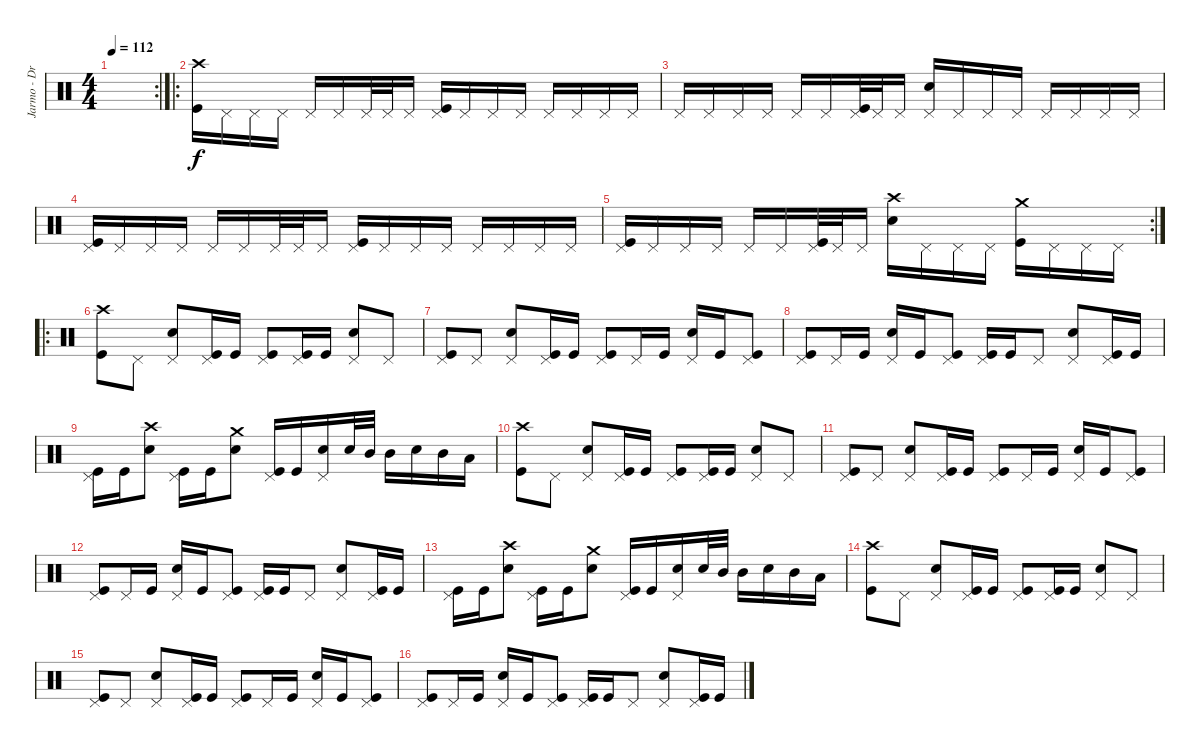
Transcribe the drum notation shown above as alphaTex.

\track ("Jarmo - Drummies" "Jarmo - Dr") {instrument percussion}
\staff {score}
\articulation defaults
\rc 2
\ts (4 4)
\tempo 112
\clef neutral
\ks c
|
\ro
("Crash high (hit)" "Kick (hit)").16 "Pedal Hi-Hat (hit)".16 "Pedal Hi-Hat (hit)".16 "Pedal Hi-Hat (hit)".16 "Pedal Hi-Hat (hit)".16 "Pedal Hi-Hat (hit)".16 "Pedal Hi-Hat (hit)".32 "Pedal Hi-Hat (hit)".32 "Pedal Hi-Hat (hit)".16 ("Pedal Hi-Hat (hit)" "Kick (hit)").16 "Pedal Hi-Hat (hit)".16 "Pedal Hi-Hat (hit)".16 "Pedal Hi-Hat (hit)".16 "Pedal Hi-Hat (hit)".16 "Pedal Hi-Hat (hit)".16 "Pedal Hi-Hat (hit)".16 "Pedal Hi-Hat (hit)".16 |
"Pedal Hi-Hat (hit)".16 "Pedal Hi-Hat (hit)".16 "Pedal Hi-Hat (hit)".16 "Pedal Hi-Hat (hit)".16 "Pedal Hi-Hat (hit)".16 "Pedal Hi-Hat (hit)".16 ("Pedal Hi-Hat (hit)" "Kick (hit)").32 "Pedal Hi-Hat (hit)".32 "Pedal Hi-Hat (hit)".16 ("Pedal Hi-Hat (hit)" "Electric Snare (hit)").16 "Pedal Hi-Hat (hit)".16 "Pedal Hi-Hat (hit)".16 "Pedal Hi-Hat (hit)".16 "Pedal Hi-Hat (hit)".16 "Pedal Hi-Hat (hit)".16 "Pedal Hi-Hat (hit)".16 "Pedal Hi-Hat (hit)".16 |
("Pedal Hi-Hat (hit)" "Kick (hit)").16 "Pedal Hi-Hat (hit)".16 "Pedal Hi-Hat (hit)".16 "Pedal Hi-Hat (hit)".16 "Pedal Hi-Hat (hit)".16 "Pedal Hi-Hat (hit)".16 "Pedal Hi-Hat (hit)".32 "Pedal Hi-Hat (hit)".32 "Pedal Hi-Hat (hit)".16 ("Pedal Hi-Hat (hit)" "Kick (hit)").16 "Pedal Hi-Hat (hit)".16 "Pedal Hi-Hat (hit)".16 "Pedal Hi-Hat (hit)".16 "Pedal Hi-Hat (hit)".16 "Pedal Hi-Hat (hit)".16 "Pedal Hi-Hat (hit)".16 "Pedal Hi-Hat (hit)".16 |
\rc 2
("Pedal Hi-Hat (hit)" "Kick (hit)").16 "Pedal Hi-Hat (hit)".16 "Pedal Hi-Hat (hit)".16 "Pedal Hi-Hat (hit)".16 "Pedal Hi-Hat (hit)".16 "Pedal Hi-Hat (hit)".16 ("Pedal Hi-Hat (hit)" "Kick (hit)").32 "Pedal Hi-Hat (hit)".32 "Pedal Hi-Hat (hit)".16 ("Crash high (hit)" "Electric Snare (hit)").16 "Pedal Hi-Hat (hit)".16 "Pedal Hi-Hat (hit)".16 "Pedal Hi-Hat (hit)".16 ("Crash medium (hit)" "Kick (hit)").16 "Pedal Hi-Hat (hit)".16 "Pedal Hi-Hat (hit)".16 "Pedal Hi-Hat (hit)".16 |
\ro
("Crash high (hit)" "Kick (hit)").8 "Pedal Hi-Hat (hit)".8 ("Pedal Hi-Hat (hit)" "Electric Snare (hit)").8 ("Pedal Hi-Hat (hit)" "Kick (hit)").16 "Kick (hit)".16 ("Pedal Hi-Hat (hit)" "Kick (hit)").8 ("Pedal Hi-Hat (hit)" "Kick (hit)").16 "Kick (hit)".16 ("Pedal Hi-Hat (hit)" "Electric Snare (hit)").8 "Pedal Hi-Hat (hit)".8 |
("Pedal Hi-Hat (hit)" "Kick (hit)").8 "Pedal Hi-Hat (hit)".8 ("Pedal Hi-Hat (hit)" "Electric Snare (hit)").8 ("Pedal Hi-Hat (hit)" "Kick (hit)").16 "Kick (hit)".16 ("Pedal Hi-Hat (hit)" "Kick (hit)").8 "Pedal Hi-Hat (hit)".16 "Kick (hit)".16 ("Pedal Hi-Hat (hit)" "Electric Snare (hit)").16 "Kick (hit)".16 ("Pedal Hi-Hat (hit)" "Kick (hit)").8 |
("Pedal Hi-Hat (hit)" "Kick (hit)").8 "Pedal Hi-Hat (hit)".16 "Kick (hit)".16 ("Pedal Hi-Hat (hit)" "Electric Snare (hit)").16 "Kick (hit)".16 ("Pedal Hi-Hat (hit)" "Kick (hit)").8 ("Pedal Hi-Hat (hit)" "Kick (hit)").16 "Kick (hit)".16 "Pedal Hi-Hat (hit)".8 ("Pedal Hi-Hat (hit)" "Electric Snare (hit)").8 ("Pedal Hi-Hat (hit)" "Kick (hit)").16 "Kick (hit)".16 |
("Pedal Hi-Hat (hit)" "Kick (hit)").16 "Kick (hit)".16 ("Crash high (hit)" "Electric Snare (hit)").8 ("Pedal Hi-Hat (hit)" "Kick (hit)").16 "Kick (hit)".16 ("Crash medium (hit)" "Electric Snare (hit)").8 ("Pedal Hi-Hat (hit)" "Kick (hit)").16 "Kick (hit)".16 ("Pedal Hi-Hat (hit)" "Electric Snare (hit)").16 "Electric Snare (hit)".32 "Mid Tom (hit)".32 "Mid Tom (hit)".16 "Electric Snare (hit)".16 "Mid Tom (hit)".16 "Low Tom (hit)".16 |
("Crash high (hit)" "Kick (hit)").8 "Pedal Hi-Hat (hit)".8 ("Pedal Hi-Hat (hit)" "Electric Snare (hit)").8 ("Pedal Hi-Hat (hit)" "Kick (hit)").16 "Kick (hit)".16 ("Pedal Hi-Hat (hit)" "Kick (hit)").8 ("Pedal Hi-Hat (hit)" "Kick (hit)").16 "Kick (hit)".16 ("Pedal Hi-Hat (hit)" "Electric Snare (hit)").8 "Pedal Hi-Hat (hit)".8 |
("Pedal Hi-Hat (hit)" "Kick (hit)").8 "Pedal Hi-Hat (hit)".8 ("Pedal Hi-Hat (hit)" "Electric Snare (hit)").8 ("Pedal Hi-Hat (hit)" "Kick (hit)").16 "Kick (hit)".16 ("Pedal Hi-Hat (hit)" "Kick (hit)").8 "Pedal Hi-Hat (hit)".16 "Kick (hit)".16 ("Pedal Hi-Hat (hit)" "Electric Snare (hit)").16 "Kick (hit)".16 ("Pedal Hi-Hat (hit)" "Kick (hit)").8 |
("Pedal Hi-Hat (hit)" "Kick (hit)").8 "Pedal Hi-Hat (hit)".16 "Kick (hit)".16 ("Pedal Hi-Hat (hit)" "Electric Snare (hit)").16 "Kick (hit)".16 ("Pedal Hi-Hat (hit)" "Kick (hit)").8 ("Pedal Hi-Hat (hit)" "Kick (hit)").16 "Kick (hit)".16 "Pedal Hi-Hat (hit)".8 ("Pedal Hi-Hat (hit)" "Electric Snare (hit)").8 ("Pedal Hi-Hat (hit)" "Kick (hit)").16 "Kick (hit)".16 |
("Pedal Hi-Hat (hit)" "Kick (hit)").16 "Kick (hit)".16 ("Crash high (hit)" "Electric Snare (hit)").8 ("Pedal Hi-Hat (hit)" "Kick (hit)").16 "Kick (hit)".16 ("Crash medium (hit)" "Electric Snare (hit)").8 ("Pedal Hi-Hat (hit)" "Kick (hit)").16 "Kick (hit)".16 ("Pedal Hi-Hat (hit)" "Electric Snare (hit)").16 "Electric Snare (hit)".32 "Mid Tom (hit)".32 "Mid Tom (hit)".16 "Electric Snare (hit)".16 "Mid Tom (hit)".16 "Low Tom (hit)".16 |
\section ("" "")
("Crash high (hit)" "Kick (hit)").8 "Pedal Hi-Hat (hit)".8 ("Pedal Hi-Hat (hit)" "Electric Snare (hit)").8 ("Pedal Hi-Hat (hit)" "Kick (hit)").16 "Kick (hit)".16 ("Pedal Hi-Hat (hit)" "Kick (hit)").8 ("Pedal Hi-Hat (hit)" "Kick (hit)").16 "Kick (hit)".16 ("Pedal Hi-Hat (hit)" "Electric Snare (hit)").8 "Pedal Hi-Hat (hit)".8 |
("Pedal Hi-Hat (hit)" "Kick (hit)").8 "Pedal Hi-Hat (hit)".8 ("Pedal Hi-Hat (hit)" "Electric Snare (hit)").8 ("Pedal Hi-Hat (hit)" "Kick (hit)").16 "Kick (hit)".16 ("Pedal Hi-Hat (hit)" "Kick (hit)").8 "Pedal Hi-Hat (hit)".16 "Kick (hit)".16 ("Pedal Hi-Hat (hit)" "Electric Snare (hit)").16 "Kick (hit)".16 ("Pedal Hi-Hat (hit)" "Kick (hit)").8 |
("Pedal Hi-Hat (hit)" "Kick (hit)").8 "Pedal Hi-Hat (hit)".16 "Kick (hit)".16 ("Pedal Hi-Hat (hit)" "Electric Snare (hit)").16 "Kick (hit)".16 ("Pedal Hi-Hat (hit)" "Kick (hit)").8 ("Pedal Hi-Hat (hit)" "Kick (hit)").16 "Kick (hit)".16 "Pedal Hi-Hat (hit)".8 ("Pedal Hi-Hat (hit)" "Electric Snare (hit)").8 ("Pedal Hi-Hat (hit)" "Kick (hit)").16 "Kick (hit)".16
